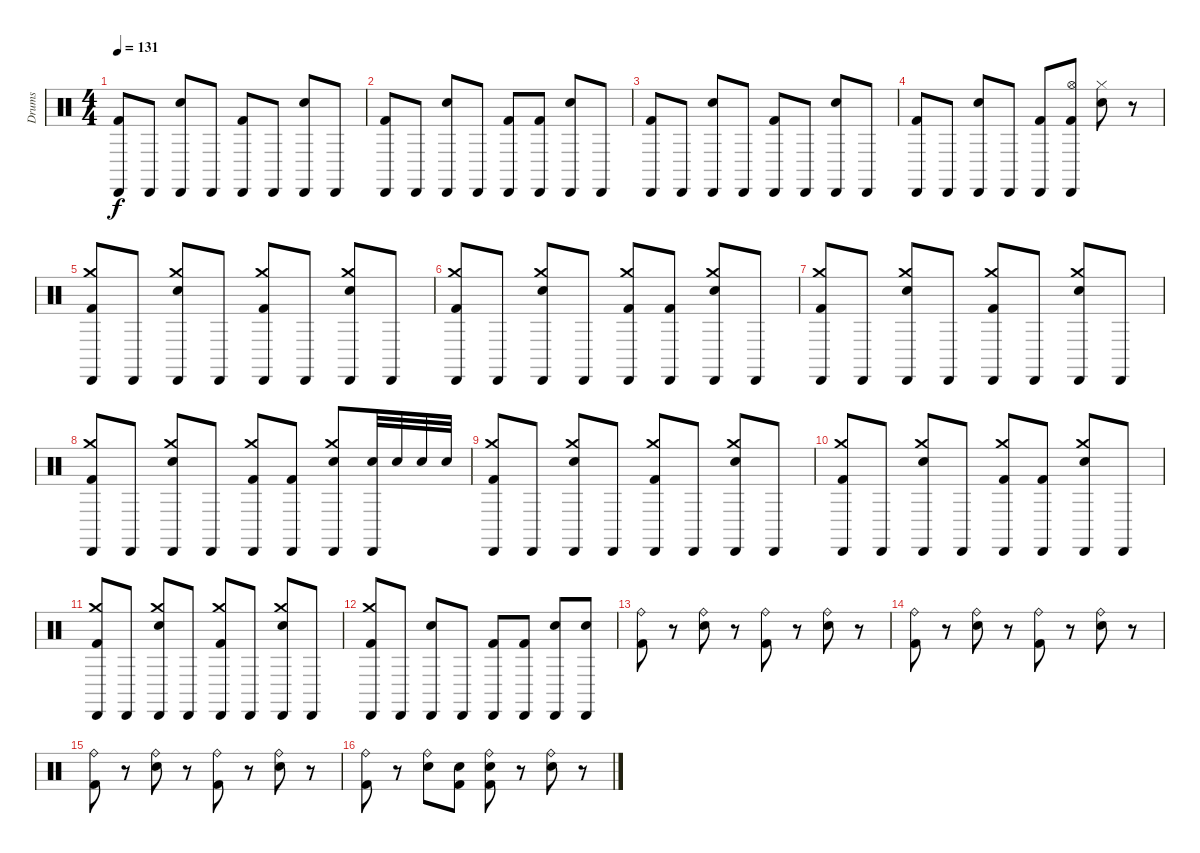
\track ("Drums" "Drums") {instrument percussion}
\staff {score}
\articulation defaults
\ts (4 4)
\tempo 131
\clef neutral
\ks c
("Cabasa (hit)" "Kick (hit) 2").8{dy f} "Cabasa (hit)".8 ("Cabasa (hit)" "Electric Snare (hit)").8 "Cabasa (hit)".8 ("Cabasa (hit)" "Kick (hit) 2").8 "Cabasa (hit)".8 ("Cabasa (hit)" "Electric Snare (hit)").8 "Cabasa (hit)".8 |
("Cabasa (hit)" "Kick (hit) 2").8 "Cabasa (hit)".8 ("Cabasa (hit)" "Electric Snare (hit)").8 "Cabasa (hit)".8 ("Cabasa (hit)" "Kick (hit) 2").8 ("Cabasa (hit)" "Kick (hit) 2").8 ("Cabasa (hit)" "Electric Snare (hit)").8 "Cabasa (hit)".8 |
("Cabasa (hit)" "Kick (hit) 2").8 "Cabasa (hit)".8 ("Cabasa (hit)" "Electric Snare (hit)").8 "Cabasa (hit)".8 ("Cabasa (hit)" "Kick (hit) 2").8 "Cabasa (hit)".8 ("Cabasa (hit)" "Electric Snare (hit)").8 "Cabasa (hit)".8 |
("Cabasa (hit)" "Kick (hit) 2").8 "Cabasa (hit)".8 ("Cabasa (hit)" "Electric Snare (hit)").8 "Cabasa (hit)".8 ("Cabasa (hit)" "Kick (hit) 2").8 ("Cabasa (hit)" "Hi-Hat (open)" "Kick (hit) 2").8 ("Hi-Hat (closed)" "Electric Snare (hit)").8 r.8 |
("Crash medium (hit)" "Cabasa (hit)" "Kick (hit) 2").8 "Cabasa (hit)".8 ("Crash medium (hit)" "Cabasa (hit)" "Electric Snare (hit)").8 "Cabasa (hit)".8 ("Crash medium (hit)" "Cabasa (hit)" "Kick (hit) 2").8 "Cabasa (hit)".8 ("Crash medium (hit)" "Cabasa (hit)" "Electric Snare (hit)").8 "Cabasa (hit)".8 |
("Crash medium (hit)" "Cabasa (hit)" "Kick (hit) 2").8 "Cabasa (hit)".8 ("Crash medium (hit)" "Cabasa (hit)" "Electric Snare (hit)").8 "Cabasa (hit)".8 ("Crash medium (hit)" "Cabasa (hit)" "Kick (hit) 2").8 ("Cabasa (hit)" "Kick (hit) 2").8 ("Crash medium (hit)" "Cabasa (hit)" "Electric Snare (hit)").8 "Cabasa (hit)".8 |
("Crash medium (hit)" "Cabasa (hit)" "Kick (hit) 2").8 "Cabasa (hit)".8 ("Crash medium (hit)" "Cabasa (hit)" "Electric Snare (hit)").8 "Cabasa (hit)".8 ("Crash medium (hit)" "Cabasa (hit)" "Kick (hit) 2").8 "Cabasa (hit)".8 ("Crash medium (hit)" "Cabasa (hit)" "Electric Snare (hit)").8 "Cabasa (hit)".8 |
("Crash medium (hit)" "Cabasa (hit)" "Kick (hit) 2").8 "Cabasa (hit)".8 ("Crash medium (hit)" "Cabasa (hit)" "Electric Snare (hit)").8 "Cabasa (hit)".8 ("Crash medium (hit)" "Cabasa (hit)" "Kick (hit) 2").8 ("Cabasa (hit)" "Kick (hit) 2").8 ("Crash medium (hit)" "Cabasa (hit)" "Electric Snare (hit)").8 ("Cabasa (hit)" "Electric Snare (hit)").32 "Electric Snare (hit)".32 "Electric Snare (hit)".32 "Electric Snare (hit)".32 |
("Crash medium (hit)" "Cabasa (hit)" "Kick (hit) 2").8 "Cabasa (hit)".8 ("Crash medium (hit)" "Cabasa (hit)" "Electric Snare (hit)").8 "Cabasa (hit)".8 ("Crash medium (hit)" "Cabasa (hit)" "Kick (hit) 2").8 "Cabasa (hit)".8 ("Crash medium (hit)" "Cabasa (hit)" "Electric Snare (hit)").8 "Cabasa (hit)".8 |
("Crash medium (hit)" "Cabasa (hit)" "Kick (hit) 2").8 "Cabasa (hit)".8 ("Crash medium (hit)" "Cabasa (hit)" "Electric Snare (hit)").8 "Cabasa (hit)".8 ("Crash medium (hit)" "Cabasa (hit)" "Kick (hit) 2").8 ("Cabasa (hit)" "Kick (hit) 2").8 ("Crash medium (hit)" "Cabasa (hit)" "Electric Snare (hit)").8 "Cabasa (hit)".8 |
("Crash medium (hit)" "Cabasa (hit)" "Kick (hit) 2").8 "Cabasa (hit)".8 ("Crash medium (hit)" "Cabasa (hit)" "Electric Snare (hit)").8 "Cabasa (hit)".8 ("Crash medium (hit)" "Cabasa (hit)" "Kick (hit) 2").8 "Cabasa (hit)".8 ("Crash medium (hit)" "Cabasa (hit)" "Electric Snare (hit)").8 "Cabasa (hit)".8 |
("Crash medium (hit)" "Cabasa (hit)" "Kick (hit) 2").8 "Cabasa (hit)".8 ("Cabasa (hit)" "Electric Snare (hit)").8 "Cabasa (hit)".8 ("Cabasa (hit)" "Kick (hit) 2").8 ("Cabasa (hit)" "Kick (hit) 2").8 ("Cabasa (hit)" "Electric Snare (hit)").8 ("Cabasa (hit)" "Electric Snare (hit)").8 |
("Ride (bell)" "Kick (hit) 2").8 r.8 ("Ride (bell)" "Electric Snare (hit)").8 r.8 ("Ride (bell)" "Kick (hit) 2").8 r.8 ("Ride (bell)" "Electric Snare (hit)").8 r.8 |
("Ride (bell)" "Kick (hit) 2").8 r.8 ("Ride (bell)" "Electric Snare (hit)").8 r.8 ("Ride (bell)" "Kick (hit) 2").8 r.8 ("Ride (bell)" "Electric Snare (hit)").8 r.8 |
("Ride (bell)" "Kick (hit) 2").8 r.8 ("Ride (bell)" "Electric Snare (hit)").8 r.8 ("Ride (bell)" "Kick (hit) 2").8 r.8 ("Ride (bell)" "Electric Snare (hit)").8 r.8 |
("Ride (bell)" "Kick (hit) 2").8 r.8 ("Ride (bell)" "Electric Snare (hit)").8 ("Electric Snare (hit)" "Kick (hit) 2").8 ("Ride (bell)" "Electric Snare (hit)" "Kick (hit) 2").8 r.8 ("Ride (bell)" "Electric Snare (hit)").8 r.8
